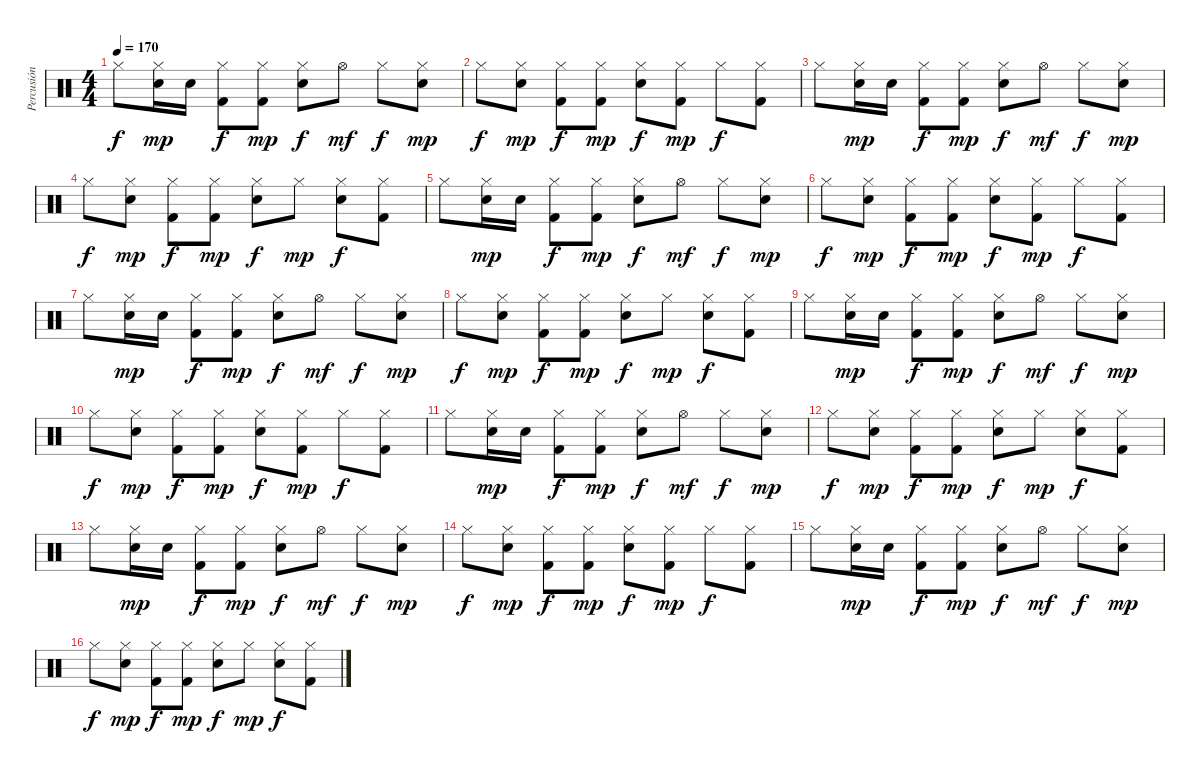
\track ("Percusión" "Percusión") {instrument percussion}
\staff {score}
\articulation defaults
\ts (4 4)
\tempo 170
\clef neutral
\ks c "Hi-Hat (closed)".8{dy f}
("Hi-Hat (closed)" "Electric Snare (hit)").16{dy mp} "Electric Snare (hit)".16 ("Hi-Hat (closed)" "Kick (hit) 2").8{dy f} ("Hi-Hat (closed)" "Kick (hit) 2").8{dy mp} ("Hi-Hat (closed)" "Electric Snare (hit)").8{dy f} "Hi-Hat (open)".8{dy mf} "Hi-Hat (closed)".8{dy f} ("Hi-Hat (closed)" "Electric Snare (hit)").8{dy mp} |
"Hi-Hat (closed)".8{dy f} ("Hi-Hat (closed)" "Electric Snare (hit)").8{dy mp} ("Hi-Hat (closed)" "Kick (hit) 2").8{dy f} ("Hi-Hat (closed)" "Kick (hit) 2").8{dy mp} ("Hi-Hat (closed)" "Electric Snare (hit)").8{dy f} ("Hi-Hat (closed)" "Kick (hit) 2").8{dy mp} "Hi-Hat (closed)".8{dy f} ("Hi-Hat (closed)" "Kick (hit) 2").8 |
"Hi-Hat (closed)".8 ("Hi-Hat (closed)" "Electric Snare (hit)").16{dy mp} "Electric Snare (hit)".16 ("Hi-Hat (closed)" "Kick (hit) 2").8{dy f} ("Hi-Hat (closed)" "Kick (hit) 2").8{dy mp} ("Hi-Hat (closed)" "Electric Snare (hit)").8{dy f} "Hi-Hat (open)".8{dy mf} "Hi-Hat (closed)".8{dy f} ("Hi-Hat (closed)" "Electric Snare (hit)").8{dy mp} |
"Hi-Hat (closed)".8{dy f} ("Hi-Hat (closed)" "Electric Snare (hit)").8{dy mp} ("Hi-Hat (closed)" "Kick (hit) 2").8{dy f} ("Hi-Hat (closed)" "Kick (hit) 2").8{dy mp} ("Hi-Hat (closed)" "Electric Snare (hit)").8{dy f} "Hi-Hat (closed)".8{dy mp} ("Hi-Hat (closed)" "Electric Snare (hit)").8{dy f} ("Hi-Hat (closed)" "Kick (hit) 2").8 |
"Hi-Hat (closed)".8 ("Hi-Hat (closed)" "Electric Snare (hit)").16{dy mp} "Electric Snare (hit)".16 ("Hi-Hat (closed)" "Kick (hit) 2").8{dy f} ("Hi-Hat (closed)" "Kick (hit) 2").8{dy mp} ("Hi-Hat (closed)" "Electric Snare (hit)").8{dy f} "Hi-Hat (open)".8{dy mf} "Hi-Hat (closed)".8{dy f} ("Hi-Hat (closed)" "Electric Snare (hit)").8{dy mp} |
"Hi-Hat (closed)".8{dy f} ("Hi-Hat (closed)" "Electric Snare (hit)").8{dy mp} ("Hi-Hat (closed)" "Kick (hit) 2").8{dy f} ("Hi-Hat (closed)" "Kick (hit) 2").8{dy mp} ("Hi-Hat (closed)" "Electric Snare (hit)").8{dy f} ("Hi-Hat (closed)" "Kick (hit) 2").8{dy mp} "Hi-Hat (closed)".8{dy f} ("Hi-Hat (closed)" "Kick (hit) 2").8 |
"Hi-Hat (closed)".8 ("Hi-Hat (closed)" "Electric Snare (hit)").16{dy mp} "Electric Snare (hit)".16 ("Hi-Hat (closed)" "Kick (hit) 2").8{dy f} ("Hi-Hat (closed)" "Kick (hit) 2").8{dy mp} ("Hi-Hat (closed)" "Electric Snare (hit)").8{dy f} "Hi-Hat (open)".8{dy mf} "Hi-Hat (closed)".8{dy f} ("Hi-Hat (closed)" "Electric Snare (hit)").8{dy mp} |
"Hi-Hat (closed)".8{dy f} ("Hi-Hat (closed)" "Electric Snare (hit)").8{dy mp} ("Hi-Hat (closed)" "Kick (hit) 2").8{dy f} ("Hi-Hat (closed)" "Kick (hit) 2").8{dy mp} ("Hi-Hat (closed)" "Electric Snare (hit)").8{dy f} "Hi-Hat (closed)".8{dy mp} ("Hi-Hat (closed)" "Electric Snare (hit)").8{dy f} ("Hi-Hat (closed)" "Kick (hit) 2").8 |
"Hi-Hat (closed)".8 ("Hi-Hat (closed)" "Electric Snare (hit)").16{dy mp} "Electric Snare (hit)".16 ("Hi-Hat (closed)" "Kick (hit) 2").8{dy f} ("Hi-Hat (closed)" "Kick (hit) 2").8{dy mp} ("Hi-Hat (closed)" "Electric Snare (hit)").8{dy f} "Hi-Hat (open)".8{dy mf} "Hi-Hat (closed)".8{dy f} ("Hi-Hat (closed)" "Electric Snare (hit)").8{dy mp} |
"Hi-Hat (closed)".8{dy f} ("Hi-Hat (closed)" "Electric Snare (hit)").8{dy mp} ("Hi-Hat (closed)" "Kick (hit) 2").8{dy f} ("Hi-Hat (closed)" "Kick (hit) 2").8{dy mp} ("Hi-Hat (closed)" "Electric Snare (hit)").8{dy f} ("Hi-Hat (closed)" "Kick (hit) 2").8{dy mp} "Hi-Hat (closed)".8{dy f} ("Hi-Hat (closed)" "Kick (hit) 2").8 |
"Hi-Hat (closed)".8 ("Hi-Hat (closed)" "Electric Snare (hit)").16{dy mp} "Electric Snare (hit)".16 ("Hi-Hat (closed)" "Kick (hit) 2").8{dy f} ("Hi-Hat (closed)" "Kick (hit) 2").8{dy mp} ("Hi-Hat (closed)" "Electric Snare (hit)").8{dy f} "Hi-Hat (open)".8{dy mf} "Hi-Hat (closed)".8{dy f} ("Hi-Hat (closed)" "Electric Snare (hit)").8{dy mp} |
"Hi-Hat (closed)".8{dy f} ("Hi-Hat (closed)" "Electric Snare (hit)").8{dy mp} ("Hi-Hat (closed)" "Kick (hit) 2").8{dy f} ("Hi-Hat (closed)" "Kick (hit) 2").8{dy mp} ("Hi-Hat (closed)" "Electric Snare (hit)").8{dy f} "Hi-Hat (closed)".8{dy mp} ("Hi-Hat (closed)" "Electric Snare (hit)").8{dy f} ("Hi-Hat (closed)" "Kick (hit) 2").8 |
"Hi-Hat (closed)".8 ("Hi-Hat (closed)" "Electric Snare (hit)").16{dy mp} "Electric Snare (hit)".16 ("Hi-Hat (closed)" "Kick (hit) 2").8{dy f} ("Hi-Hat (closed)" "Kick (hit) 2").8{dy mp} ("Hi-Hat (closed)" "Electric Snare (hit)").8{dy f} "Hi-Hat (open)".8{dy mf} "Hi-Hat (closed)".8{dy f} ("Hi-Hat (closed)" "Electric Snare (hit)").8{dy mp} |
"Hi-Hat (closed)".8{dy f} ("Hi-Hat (closed)" "Electric Snare (hit)").8{dy mp} ("Hi-Hat (closed)" "Kick (hit) 2").8{dy f} ("Hi-Hat (closed)" "Kick (hit) 2").8{dy mp} ("Hi-Hat (closed)" "Electric Snare (hit)").8{dy f} ("Hi-Hat (closed)" "Kick (hit) 2").8{dy mp} "Hi-Hat (closed)".8{dy f} ("Hi-Hat (closed)" "Kick (hit) 2").8 |
"Hi-Hat (closed)".8 ("Hi-Hat (closed)" "Electric Snare (hit)").16{dy mp} "Electric Snare (hit)".16 ("Hi-Hat (closed)" "Kick (hit) 2").8{dy f} ("Hi-Hat (closed)" "Kick (hit) 2").8{dy mp} ("Hi-Hat (closed)" "Electric Snare (hit)").8{dy f} "Hi-Hat (open)".8{dy mf} "Hi-Hat (closed)".8{dy f} ("Hi-Hat (closed)" "Electric Snare (hit)").8{dy mp} |
"Hi-Hat (closed)".8{dy f} ("Hi-Hat (closed)" "Electric Snare (hit)").8{dy mp} ("Hi-Hat (closed)" "Kick (hit) 2").8{dy f} ("Hi-Hat (closed)" "Kick (hit) 2").8{dy mp} ("Hi-Hat (closed)" "Electric Snare (hit)").8{dy f} "Hi-Hat (closed)".8{dy mp} ("Hi-Hat (closed)" "Electric Snare (hit)").8{dy f} ("Hi-Hat (closed)" "Kick (hit) 2").8
